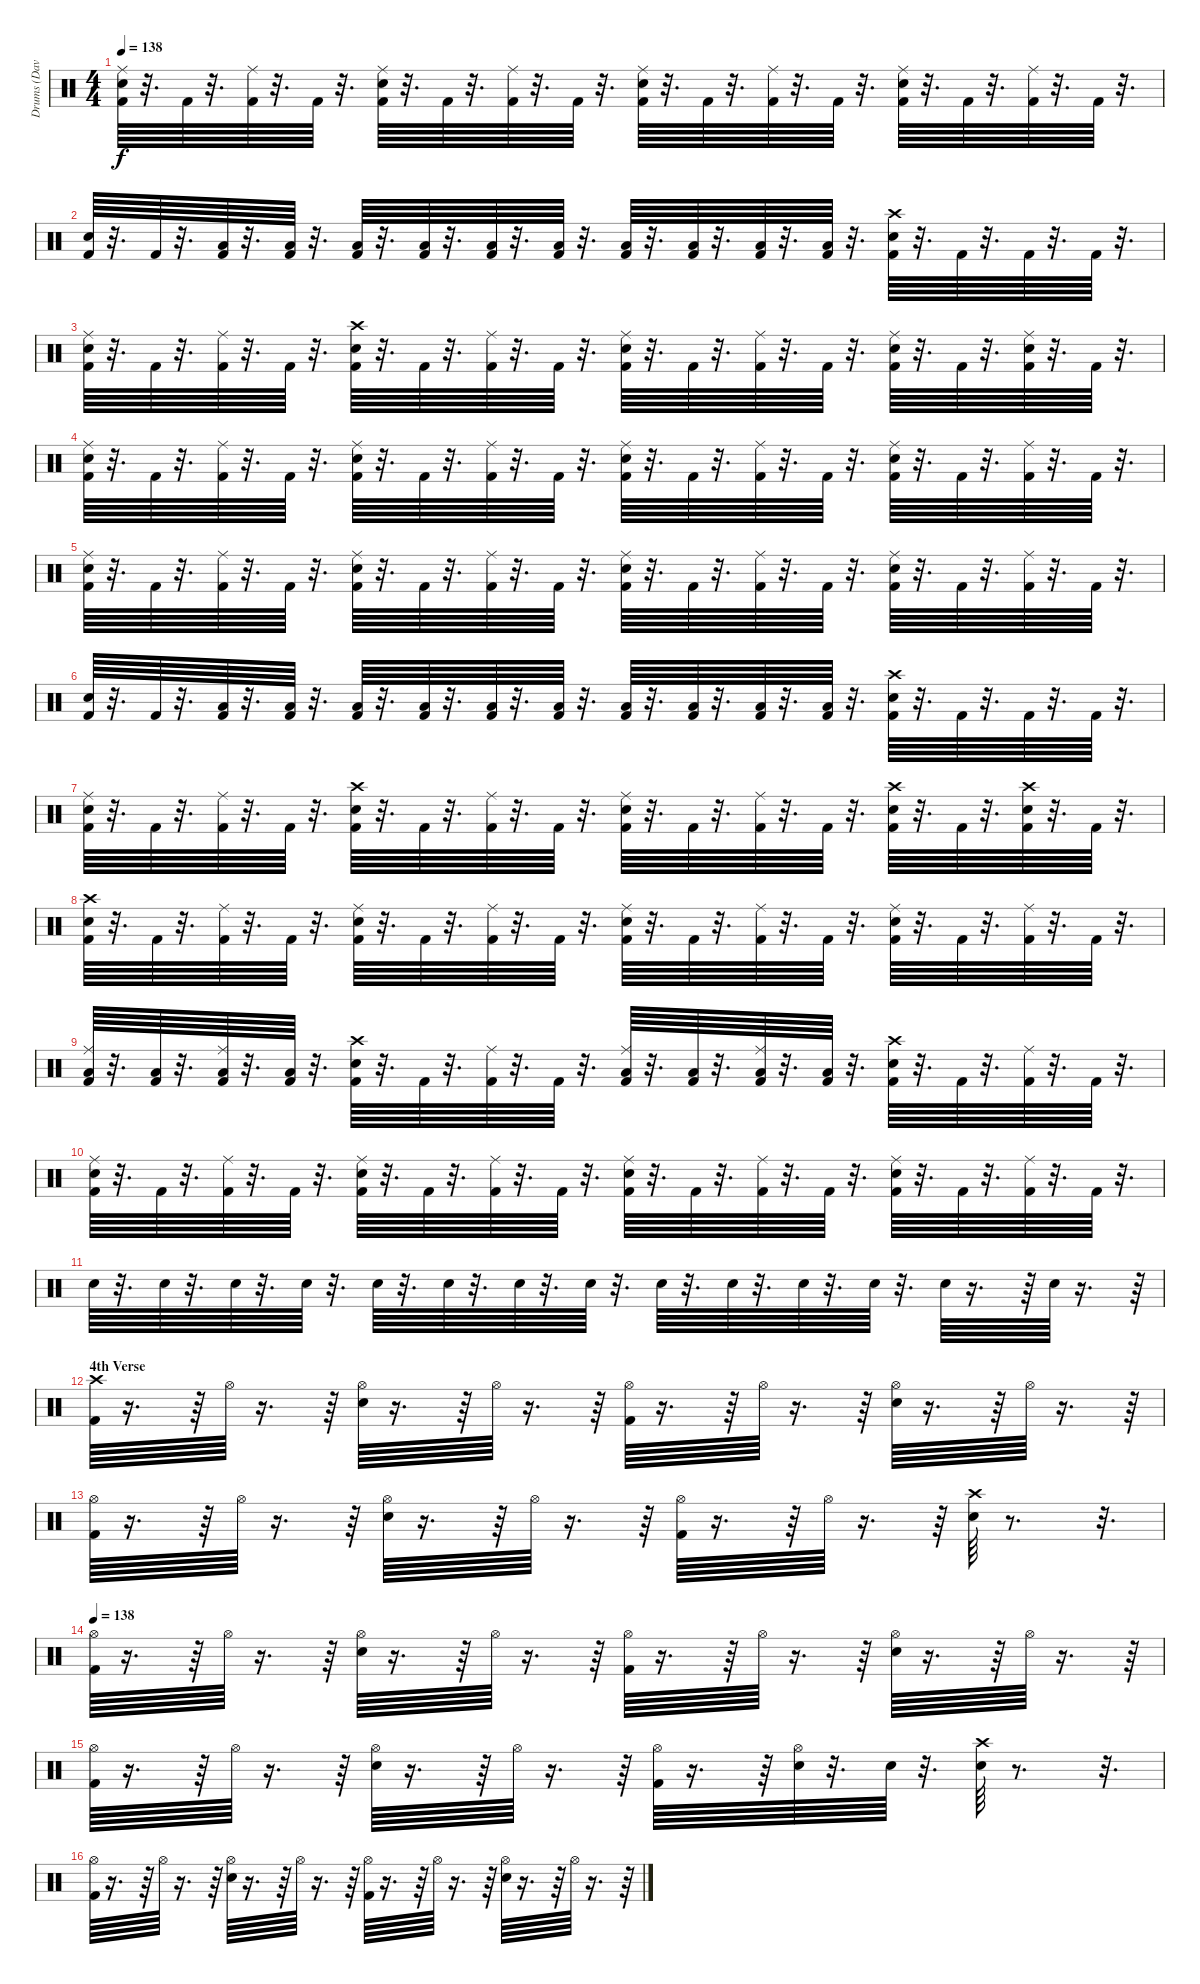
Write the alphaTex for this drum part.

\track ("Drums (Dave)" "Drums (Dav") {instrument percussion}
\staff {score}
\articulation defaults
\ts (4 4)
\tempo 138
\clef neutral
\ks c
("Kick (hit) 2" "Snare (hit) 2" "Ride (middle)").64{dy f} r.32{d} "Kick (hit) 2".64 r.32{d} ("Kick (hit) 2" "Ride (middle)").64 r.32{d} "Kick (hit) 2".64 r.32{d} ("Kick (hit) 2" "Snare (hit) 2" "Ride (middle)").64 r.32{d} "Kick (hit) 2".64 r.32{d} ("Kick (hit) 2" "Ride (middle)").64 r.32{d} "Kick (hit) 2".64 r.32{d} ("Kick (hit) 2" "Snare (hit) 2" "Ride (middle)").64 r.32{d} "Kick (hit) 2".64 r.32{d} ("Kick (hit) 2" "Ride (middle)").64 r.32{d} "Kick (hit) 2".64 r.32{d} ("Kick (hit) 2" "Snare (hit) 2" "Ride (middle)").64 r.32{d} "Kick (hit) 2".64 r.32{d} ("Kick (hit) 2" "Ride (middle)").64 r.32{d} "Kick (hit) 2".64 r.32{d} |
("Kick (hit) 2" "Snare (hit) 2").64 r.32{d} "Kick (hit) 2".64 r.32{d} ("Kick (hit) 2" "Low Tom (hit)").64 r.32{d} ("Kick (hit) 2" "Low Tom (hit)").64 r.32{d} ("Kick (hit) 2" "Low Tom (hit)").64 r.32{d} ("Kick (hit) 2" "Low Tom (hit)").64 r.32{d} ("Kick (hit) 2" "Low Tom (hit)").64 r.32{d} ("Kick (hit) 2" "Low Tom (hit)").64 r.32{d} ("Kick (hit) 2" "Low Tom (hit)").64 r.32{d} ("Kick (hit) 2" "Low Tom (hit)").64 r.32{d} ("Kick (hit) 2" "Low Tom (hit)").64 r.32{d} ("Kick (hit) 2" "Low Tom (hit)").64 r.32{d} ("Kick (hit) 2" "Snare (hit) 2" "Crash high (hit)").64 r.32{d} "Kick (hit) 2".64 r.32{d} "Kick (hit) 2".64 r.32{d} "Kick (hit) 2".64 r.32{d} |
("Kick (hit) 2" "Snare (hit) 2" "Ride (middle)").64 r.32{d} "Kick (hit) 2".64 r.32{d} ("Kick (hit) 2" "Ride (middle)").64 r.32{d} "Kick (hit) 2".64 r.32{d} ("Kick (hit) 2" "Snare (hit) 2" "Crash high (hit)").64 r.32{d} "Kick (hit) 2".64 r.32{d} ("Kick (hit) 2" "Ride (middle)").64 r.32{d} "Kick (hit) 2".64 r.32{d} ("Kick (hit) 2" "Snare (hit) 2" "Ride (middle)").64 r.32{d} "Kick (hit) 2".64 r.32{d} ("Kick (hit) 2" "Ride (middle)").64 r.32{d} "Kick (hit) 2".64 r.32{d} ("Kick (hit) 2" "Snare (hit) 2" "Ride (middle)").64 r.32{d} "Kick (hit) 2".64 r.32{d} ("Kick (hit) 2" "Ride (middle)" "Snare (hit) 2").64 r.32{d} "Kick (hit) 2".64 r.32{d} |
("Kick (hit) 2" "Snare (hit) 2" "Ride (middle)").64 r.32{d} "Kick (hit) 2".64 r.32{d} ("Kick (hit) 2" "Ride (middle)").64 r.32{d} "Kick (hit) 2".64 r.32{d} ("Kick (hit) 2" "Snare (hit) 2" "Ride (middle)").64 r.32{d} "Kick (hit) 2".64 r.32{d} ("Kick (hit) 2" "Ride (middle)").64 r.32{d} "Kick (hit) 2".64 r.32{d} ("Kick (hit) 2" "Snare (hit) 2" "Ride (middle)").64 r.32{d} "Kick (hit) 2".64 r.32{d} ("Kick (hit) 2" "Ride (middle)").64 r.32{d} "Kick (hit) 2".64 r.32{d} ("Kick (hit) 2" "Snare (hit) 2" "Ride (middle)").64 r.32{d} "Kick (hit) 2".64 r.32{d} ("Kick (hit) 2" "Ride (middle)").64 r.32{d} "Kick (hit) 2".64 r.32{d} |
("Kick (hit) 2" "Snare (hit) 2" "Ride (middle)").64 r.32{d} "Kick (hit) 2".64 r.32{d} ("Kick (hit) 2" "Ride (middle)").64 r.32{d} "Kick (hit) 2".64 r.32{d} ("Kick (hit) 2" "Snare (hit) 2" "Ride (middle)").64 r.32{d} "Kick (hit) 2".64 r.32{d} ("Kick (hit) 2" "Ride (middle)").64 r.32{d} "Kick (hit) 2".64 r.32{d} ("Kick (hit) 2" "Snare (hit) 2" "Ride (middle)").64 r.32{d} "Kick (hit) 2".64 r.32{d} ("Kick (hit) 2" "Ride (middle)").64 r.32{d} "Kick (hit) 2".64 r.32{d} ("Kick (hit) 2" "Snare (hit) 2" "Ride (middle)").64 r.32{d} "Kick (hit) 2".64 r.32{d} ("Kick (hit) 2" "Ride (middle)").64 r.32{d} "Kick (hit) 2".64 r.32{d} |
("Kick (hit) 2" "Snare (hit) 2").64 r.32{d} "Kick (hit) 2".64 r.32{d} ("Kick (hit) 2" "Low Tom (hit)").64 r.32{d} ("Kick (hit) 2" "Low Tom (hit)").64 r.32{d} ("Kick (hit) 2" "Low Tom (hit)").64 r.32{d} ("Kick (hit) 2" "Low Tom (hit)").64 r.32{d} ("Kick (hit) 2" "Low Tom (hit)").64 r.32{d} ("Kick (hit) 2" "Low Tom (hit)").64 r.32{d} ("Kick (hit) 2" "Low Tom (hit)").64 r.32{d} ("Kick (hit) 2" "Low Tom (hit)").64 r.32{d} ("Kick (hit) 2" "Low Tom (hit)").64 r.32{d} ("Kick (hit) 2" "Low Tom (hit)").64 r.32{d} ("Kick (hit) 2" "Snare (hit) 2" "Crash high (hit)").64 r.32{d} "Kick (hit) 2".64 r.32{d} "Kick (hit) 2".64 r.32{d} "Kick (hit) 2".64 r.32{d} |
("Kick (hit) 2" "Snare (hit) 2" "Ride (middle)").64 r.32{d} "Kick (hit) 2".64 r.32{d} ("Kick (hit) 2" "Ride (middle)").64 r.32{d} "Kick (hit) 2".64 r.32{d} ("Kick (hit) 2" "Snare (hit) 2" "Crash high (hit)").64 r.32{d} "Kick (hit) 2".64 r.32{d} ("Kick (hit) 2" "Ride (middle)").64 r.32{d} "Kick (hit) 2".64 r.32{d} ("Kick (hit) 2" "Snare (hit) 2" "Ride (middle)").64 r.32{d} "Kick (hit) 2".64 r.32{d} ("Kick (hit) 2" "Ride (middle)").64 r.32{d} "Kick (hit) 2".64 r.32{d} ("Kick (hit) 2" "Snare (hit) 2" "Crash high (hit)").64 r.32{d} "Kick (hit) 2".64 r.32{d} ("Kick (hit) 2" "Crash high (hit)" "Snare (hit) 2").64 r.32{d} "Kick (hit) 2".64 r.32{d} |
("Kick (hit) 2" "Snare (hit) 2" "Crash high (hit)").64 r.32{d} "Kick (hit) 2".64 r.32{d} ("Kick (hit) 2" "Ride (middle)").64 r.32{d} "Kick (hit) 2".64 r.32{d} ("Kick (hit) 2" "Snare (hit) 2" "Ride (middle)").64 r.32{d} "Kick (hit) 2".64 r.32{d} ("Kick (hit) 2" "Ride (middle)").64 r.32{d} "Kick (hit) 2".64 r.32{d} ("Kick (hit) 2" "Snare (hit) 2" "Ride (middle)").64 r.32{d} "Kick (hit) 2".64 r.32{d} ("Kick (hit) 2" "Ride (middle)").64 r.32{d} "Kick (hit) 2".64 r.32{d} ("Kick (hit) 2" "Snare (hit) 2" "Ride (middle)").64 r.32{d} "Kick (hit) 2".64 r.32{d} ("Kick (hit) 2" "Ride (middle)").64 r.32{d} "Kick (hit) 2".64 r.32{d} |
("Kick (hit) 2" "Ride (middle)" "Low Tom (hit)").64 r.32{d} ("Kick (hit) 2" "Low Tom (hit)").64 r.32{d} ("Kick (hit) 2" "Ride (middle)" "Low Tom (hit)").64 r.32{d} ("Kick (hit) 2" "Low Tom (hit)").64 r.32{d} ("Kick (hit) 2" "Snare (hit) 2" "Crash high (hit)").64 r.32{d} "Kick (hit) 2".64 r.32{d} ("Kick (hit) 2" "Ride (middle)").64 r.32{d} "Kick (hit) 2".64 r.32{d} ("Kick (hit) 2" "Ride (middle)" "Low Tom (hit)").64 r.32{d} ("Kick (hit) 2" "Low Tom (hit)").64 r.32{d} ("Kick (hit) 2" "Ride (middle)" "Low Tom (hit)").64 r.32{d} ("Kick (hit) 2" "Low Tom (hit)").64 r.32{d} ("Kick (hit) 2" "Snare (hit) 2" "Crash high (hit)").64 r.32{d} "Kick (hit) 2".64 r.32{d} ("Kick (hit) 2" "Ride (middle)").64 r.32{d} "Kick (hit) 2".64 r.32{d} |
("Kick (hit) 2" "Snare (hit) 2" "Ride (middle)").64 r.32{d} "Kick (hit) 2".64 r.32{d} ("Kick (hit) 2" "Ride (middle)").64 r.32{d} "Kick (hit) 2".64 r.32{d} ("Kick (hit) 2" "Snare (hit) 2" "Ride (middle)").64 r.32{d} "Kick (hit) 2".64 r.32{d} ("Kick (hit) 2" "Ride (middle)").64 r.32{d} "Kick (hit) 2".64 r.32{d} ("Kick (hit) 2" "Snare (hit) 2" "Ride (middle)").64 r.32{d} "Kick (hit) 2".64 r.32{d} ("Kick (hit) 2" "Ride (middle)").64 r.32{d} "Kick (hit) 2".64 r.32{d} ("Kick (hit) 2" "Snare (hit) 2" "Ride (middle)").64 r.32{d} "Kick (hit) 2".64 r.32{d} ("Kick (hit) 2" "Ride (middle)").64 r.32{d} "Kick (hit) 2".64 r.32{d} |
"Snare (hit) 2".64 r.32{d} "Snare (hit) 2".64 r.32{d} "Snare (hit) 2".64 r.32{d} "Snare (hit) 2".64 r.32{d} "Snare (hit) 2".64 r.32{d} "Snare (hit) 2".64 r.32{d} "Snare (hit) 2".64 r.32{d} "Snare (hit) 2".64 r.32{d} "Snare (hit) 2".64 r.32{d} "Snare (hit) 2".64 r.32{d} "Snare (hit) 2".64 r.32{d} "Snare (hit) 2".64 r.32{d} "Snare (hit) 2".64 r.16{d} r.64 "Snare (hit) 2".64 r.16{d} r.64 |
\section ("" "4th Verse")
("Kick (hit) 2" "Crash high (hit)").64 r.16{d} r.64 "Hi-Hat (open)".64 r.16{d} r.64 ("Snare (hit) 2" "Hi-Hat (open)").64 r.16{d} r.64 "Hi-Hat (open)".64 r.16{d} r.64 ("Kick (hit) 2" "Hi-Hat (open)").64 r.16{d} r.64 "Hi-Hat (open)".64 r.16{d} r.64 ("Snare (hit) 2" "Hi-Hat (open)").64 r.16{d} r.64 "Hi-Hat (open)".64 r.16{d} r.64 |
("Kick (hit) 2" "Hi-Hat (open)").64 r.16{d} r.64 "Hi-Hat (open)".64 r.16{d} r.64 ("Snare (hit) 2" "Hi-Hat (open)").64 r.16{d} r.64 "Hi-Hat (open)".64 r.16{d} r.64 ("Kick (hit) 2" "Hi-Hat (open)").64 r.16{d} r.64 "Hi-Hat (open)".64 r.16{d} r.64 ("Snare (hit) 2" "Crash high (hit)").64 r.8{d} r.32{d} |
\tempo 138
("Kick (hit) 2" "Hi-Hat (open)").64 r.16{d} r.64 "Hi-Hat (open)".64 r.16{d} r.64 ("Snare (hit) 2" "Hi-Hat (open)").64 r.16{d} r.64 "Hi-Hat (open)".64 r.16{d} r.64 ("Kick (hit) 2" "Hi-Hat (open)").64 r.16{d} r.64 "Hi-Hat (open)".64 r.16{d} r.64 ("Snare (hit) 2" "Hi-Hat (open)").64 r.16{d} r.64 "Hi-Hat (open)".64 r.16{d} r.64 |
("Kick (hit) 2" "Hi-Hat (open)").64 r.16{d} r.64 "Hi-Hat (open)".64 r.16{d} r.64 ("Snare (hit) 2" "Hi-Hat (open)").64 r.16{d} r.64 "Hi-Hat (open)".64 r.16{d} r.64 ("Kick (hit) 2" "Hi-Hat (open)").64 r.16{d} r.64 ("Hi-Hat (open)" "Snare (hit) 2").64 r.32{d} "Snare (hit) 2".64 r.32{d} ("Crash high (hit)" "Snare (hit) 2").64 r.8{d} r.32{d} |
("Kick (hit) 2" "Hi-Hat (open)").64 r.16{d} r.64 "Hi-Hat (open)".64 r.16{d} r.64 ("Snare (hit) 2" "Hi-Hat (open)").64 r.16{d} r.64 "Hi-Hat (open)".64 r.16{d} r.64 ("Kick (hit) 2" "Hi-Hat (open)").64 r.16{d} r.64 "Hi-Hat (open)".64 r.16{d} r.64 ("Snare (hit) 2" "Hi-Hat (open)").64 r.16{d} r.64 "Hi-Hat (open)".64 r.16{d} r.64
